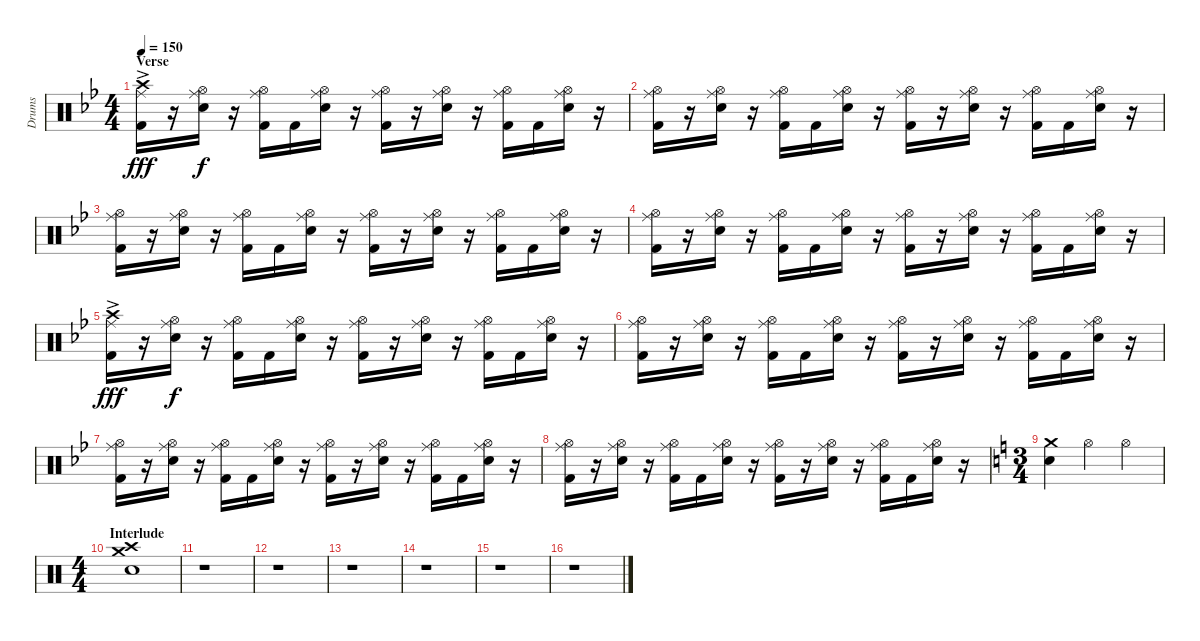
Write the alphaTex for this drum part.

\track ("Drums" "Drums") {instrument percussion}
\staff {score}
\articulation defaults
\ts (4 4)
\section ("" "Verse")
\tempo 150
\clef neutral
\ks gminor
("Crash high (hit)"{ac} "Ride (middle)" "Kick (hit) 2").16{dy fff} r.16 ("Hi-Hat (open)" "Ride (middle)" "Electric Snare (hit)").16{dy f} r.16 ("Hi-Hat (open)" "Ride (middle)" "Kick (hit) 2").16 "Kick (hit) 2".16 ("Hi-Hat (open)" "Ride (middle)" "Electric Snare (hit)").16 r.16 ("Hi-Hat (open)" "Ride (middle)" "Kick (hit) 2").16 r.16 ("Hi-Hat (open)" "Ride (middle)" "Electric Snare (hit)").16 r.16 ("Hi-Hat (open)" "Ride (middle)" "Kick (hit) 2").16 "Kick (hit) 2".16 ("Hi-Hat (open)" "Ride (middle)" "Electric Snare (hit)").16 r.16 |
("Hi-Hat (open)" "Ride (middle)" "Kick (hit) 2").16 r.16 ("Hi-Hat (open)" "Ride (middle)" "Electric Snare (hit)").16 r.16 ("Hi-Hat (open)" "Ride (middle)" "Kick (hit) 2").16 "Kick (hit) 2".16 ("Hi-Hat (open)" "Ride (middle)" "Electric Snare (hit)").16 r.16 ("Hi-Hat (open)" "Ride (middle)" "Kick (hit) 2").16 r.16 ("Hi-Hat (open)" "Ride (middle)" "Electric Snare (hit)").16 r.16 ("Hi-Hat (open)" "Ride (middle)" "Kick (hit) 2").16 "Kick (hit) 2".16 ("Hi-Hat (open)" "Ride (middle)" "Electric Snare (hit)").16 r.16 |
("Hi-Hat (open)" "Ride (middle)" "Kick (hit) 2").16 r.16 ("Hi-Hat (open)" "Ride (middle)" "Electric Snare (hit)").16 r.16 ("Hi-Hat (open)" "Ride (middle)" "Kick (hit) 2").16 "Kick (hit) 2".16 ("Hi-Hat (open)" "Ride (middle)" "Electric Snare (hit)").16 r.16 ("Hi-Hat (open)" "Ride (middle)" "Kick (hit) 2").16 r.16 ("Hi-Hat (open)" "Ride (middle)" "Electric Snare (hit)").16 r.16 ("Hi-Hat (open)" "Ride (middle)" "Kick (hit) 2").16 "Kick (hit) 2".16 ("Hi-Hat (open)" "Ride (middle)" "Electric Snare (hit)").16 r.16 |
("Hi-Hat (open)" "Ride (middle)" "Kick (hit) 2").16 r.16 ("Hi-Hat (open)" "Ride (middle)" "Electric Snare (hit)").16 r.16 ("Hi-Hat (open)" "Ride (middle)" "Kick (hit) 2").16 "Kick (hit) 2".16 ("Hi-Hat (open)" "Ride (middle)" "Electric Snare (hit)").16 r.16 ("Hi-Hat (open)" "Ride (middle)" "Kick (hit) 2").16 r.16 ("Hi-Hat (open)" "Ride (middle)" "Electric Snare (hit)").16 r.16 ("Hi-Hat (open)" "Ride (middle)" "Kick (hit) 2").16 "Kick (hit) 2".16 ("Hi-Hat (open)" "Ride (middle)" "Electric Snare (hit)").16 r.16 |
("Crash high (hit)"{ac} "Ride (middle)" "Kick (hit) 2").16{dy fff} r.16 ("Hi-Hat (open)" "Ride (middle)" "Electric Snare (hit)").16{dy f} r.16 ("Hi-Hat (open)" "Ride (middle)" "Kick (hit) 2").16 "Kick (hit) 2".16 ("Hi-Hat (open)" "Ride (middle)" "Electric Snare (hit)").16 r.16 ("Hi-Hat (open)" "Ride (middle)" "Kick (hit) 2").16 r.16 ("Hi-Hat (open)" "Ride (middle)" "Electric Snare (hit)").16 r.16 ("Hi-Hat (open)" "Ride (middle)" "Kick (hit) 2").16 "Kick (hit) 2".16 ("Hi-Hat (open)" "Ride (middle)" "Electric Snare (hit)").16 r.16 |
("Hi-Hat (open)" "Ride (middle)" "Kick (hit) 2").16 r.16 ("Hi-Hat (open)" "Ride (middle)" "Electric Snare (hit)").16 r.16 ("Hi-Hat (open)" "Ride (middle)" "Kick (hit) 2").16 "Kick (hit) 2".16 ("Hi-Hat (open)" "Ride (middle)" "Electric Snare (hit)").16 r.16 ("Hi-Hat (open)" "Ride (middle)" "Kick (hit) 2").16 r.16 ("Hi-Hat (open)" "Ride (middle)" "Electric Snare (hit)").16 r.16 ("Hi-Hat (open)" "Ride (middle)" "Kick (hit) 2").16 "Kick (hit) 2".16 ("Hi-Hat (open)" "Ride (middle)" "Electric Snare (hit)").16 r.16 |
("Hi-Hat (open)" "Ride (middle)" "Kick (hit) 2").16 r.16 ("Hi-Hat (open)" "Ride (middle)" "Electric Snare (hit)").16 r.16 ("Hi-Hat (open)" "Ride (middle)" "Kick (hit) 2").16 "Kick (hit) 2".16 ("Hi-Hat (open)" "Ride (middle)" "Electric Snare (hit)").16 r.16 ("Hi-Hat (open)" "Ride (middle)" "Kick (hit) 2").16 r.16 ("Hi-Hat (open)" "Ride (middle)" "Electric Snare (hit)").16 r.16 ("Hi-Hat (open)" "Ride (middle)" "Kick (hit) 2").16 "Kick (hit) 2".16 ("Hi-Hat (open)" "Ride (middle)" "Electric Snare (hit)").16 r.16 |
("Hi-Hat (open)" "Ride (middle)" "Kick (hit) 2").16 r.16 ("Hi-Hat (open)" "Ride (middle)" "Electric Snare (hit)").16 r.16 ("Hi-Hat (open)" "Ride (middle)" "Kick (hit) 2").16 "Kick (hit) 2".16 ("Hi-Hat (open)" "Ride (middle)" "Electric Snare (hit)").16 r.16 ("Hi-Hat (open)" "Ride (middle)" "Kick (hit) 2").16 r.16 ("Hi-Hat (open)" "Ride (middle)" "Electric Snare (hit)").16 r.16 ("Hi-Hat (open)" "Ride (middle)" "Kick (hit) 2").16 "Kick (hit) 2".16 ("Hi-Hat (open)" "Ride (middle)" "Electric Snare (hit)").16 r.16 |
\ts (3 4)
\ks aminor
("Crash medium (hit)" "Electric Snare (hit)").4 "Hi-Hat (open)".4 "Hi-Hat (open)".4 |
\ts (4 4)
\section ("" "Interlude")
\ks c
("Crash high (hit)" "Crash medium (hit)" "Electric Snare (hit)").1 |
r.1 |
r.1 |
r.1 |
r.1 |
r.1 |
r.1
